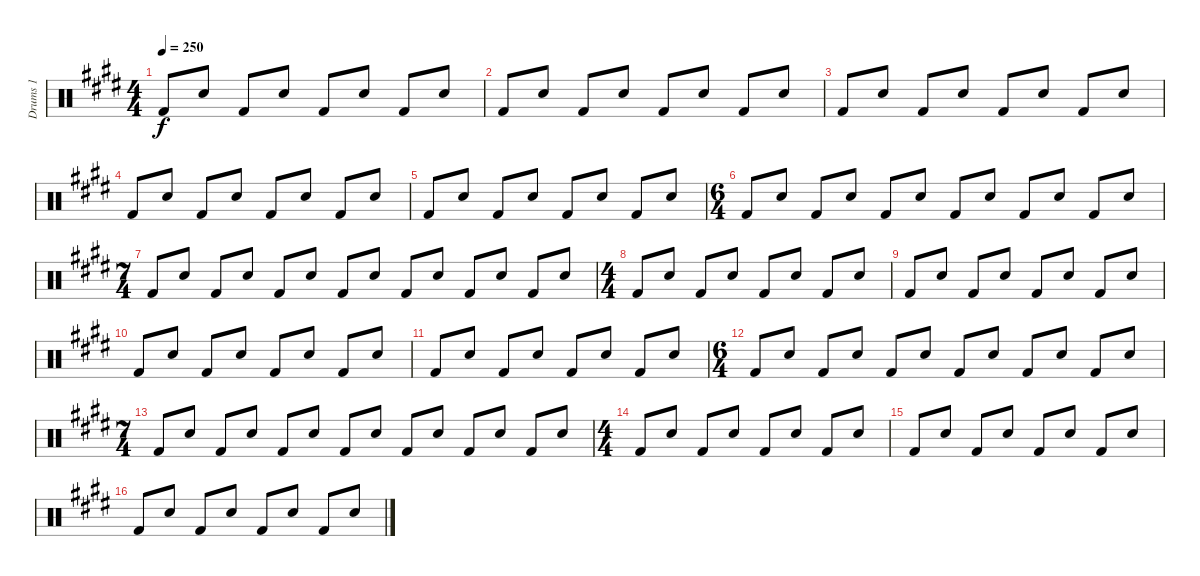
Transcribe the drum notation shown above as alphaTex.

\track ("Drums 1" "Drums 1") {instrument percussion}
\staff {score}
\articulation defaults
\ts (4 4)
\tempo 250
\clef neutral
\ks c#minor "Kick (hit) 2".8{dy f} "Electric Snare (hit)".8 "Kick (hit) 2".8 "Electric Snare (hit)".8 "Kick (hit) 2".8 "Electric Snare (hit)".8 "Kick (hit) 2".8 "Electric Snare (hit)".8
|
"Kick (hit) 2".8 "Electric Snare (hit)".8 "Kick (hit) 2".8 "Electric Snare (hit)".8 "Kick (hit) 2".8 "Electric Snare (hit)".8 "Kick (hit) 2".8 "Electric Snare (hit)".8 |
"Kick (hit) 2".8 "Electric Snare (hit)".8 "Kick (hit) 2".8 "Electric Snare (hit)".8 "Kick (hit) 2".8 "Electric Snare (hit)".8 "Kick (hit) 2".8 "Electric Snare (hit)".8 |
"Kick (hit) 2".8 "Electric Snare (hit)".8 "Kick (hit) 2".8 "Electric Snare (hit)".8 "Kick (hit) 2".8 "Electric Snare (hit)".8 "Kick (hit) 2".8 "Electric Snare (hit)".8 |
"Kick (hit) 2".8 "Electric Snare (hit)".8 "Kick (hit) 2".8 "Electric Snare (hit)".8 "Kick (hit) 2".8 "Electric Snare (hit)".8 "Kick (hit) 2".8 "Electric Snare (hit)".8 |
\ts (6 4)
"Kick (hit) 2".8 "Electric Snare (hit)".8 "Kick (hit) 2".8 "Electric Snare (hit)".8 "Kick (hit) 2".8 "Electric Snare (hit)".8 "Kick (hit) 2".8 "Electric Snare (hit)".8 "Kick (hit) 2".8 "Electric Snare (hit)".8 "Kick (hit) 2".8 "Electric Snare (hit)".8 |
\ts (7 4)
"Kick (hit) 2".8 "Electric Snare (hit)".8 "Kick (hit) 2".8 "Electric Snare (hit)".8 "Kick (hit) 2".8 "Electric Snare (hit)".8 "Kick (hit) 2".8 "Electric Snare (hit)".8 "Kick (hit) 2".8 "Electric Snare (hit)".8 "Kick (hit) 2".8 "Electric Snare (hit)".8 "Kick (hit) 2".8 "Electric Snare (hit)".8 |
\ts (4 4)
"Kick (hit) 2".8 "Electric Snare (hit)".8 "Kick (hit) 2".8 "Electric Snare (hit)".8 "Kick (hit) 2".8 "Electric Snare (hit)".8 "Kick (hit) 2".8 "Electric Snare (hit)".8 |
"Kick (hit) 2".8 "Electric Snare (hit)".8 "Kick (hit) 2".8 "Electric Snare (hit)".8 "Kick (hit) 2".8 "Electric Snare (hit)".8 "Kick (hit) 2".8 "Electric Snare (hit)".8 |
"Kick (hit) 2".8 "Electric Snare (hit)".8 "Kick (hit) 2".8 "Electric Snare (hit)".8 "Kick (hit) 2".8 "Electric Snare (hit)".8 "Kick (hit) 2".8 "Electric Snare (hit)".8 |
"Kick (hit) 2".8 "Electric Snare (hit)".8 "Kick (hit) 2".8 "Electric Snare (hit)".8 "Kick (hit) 2".8 "Electric Snare (hit)".8 "Kick (hit) 2".8 "Electric Snare (hit)".8 |
\ts (6 4)
"Kick (hit) 2".8 "Electric Snare (hit)".8 "Kick (hit) 2".8 "Electric Snare (hit)".8 "Kick (hit) 2".8 "Electric Snare (hit)".8 "Kick (hit) 2".8 "Electric Snare (hit)".8 "Kick (hit) 2".8 "Electric Snare (hit)".8 "Kick (hit) 2".8 "Electric Snare (hit)".8 |
\ts (7 4)
"Kick (hit) 2".8 "Electric Snare (hit)".8 "Kick (hit) 2".8 "Electric Snare (hit)".8 "Kick (hit) 2".8 "Electric Snare (hit)".8 "Kick (hit) 2".8 "Electric Snare (hit)".8 "Kick (hit) 2".8 "Electric Snare (hit)".8 "Kick (hit) 2".8 "Electric Snare (hit)".8 "Kick (hit) 2".8 "Electric Snare (hit)".8 |
\ts (4 4)
"Kick (hit) 2".8 "Electric Snare (hit)".8 "Kick (hit) 2".8 "Electric Snare (hit)".8 "Kick (hit) 2".8 "Electric Snare (hit)".8 "Kick (hit) 2".8 "Electric Snare (hit)".8 |
"Kick (hit) 2".8 "Electric Snare (hit)".8 "Kick (hit) 2".8 "Electric Snare (hit)".8 "Kick (hit) 2".8 "Electric Snare (hit)".8 "Kick (hit) 2".8 "Electric Snare (hit)".8 |
"Kick (hit) 2".8 "Electric Snare (hit)".8 "Kick (hit) 2".8 "Electric Snare (hit)".8 "Kick (hit) 2".8 "Electric Snare (hit)".8 "Kick (hit) 2".8 "Electric Snare (hit)".8
